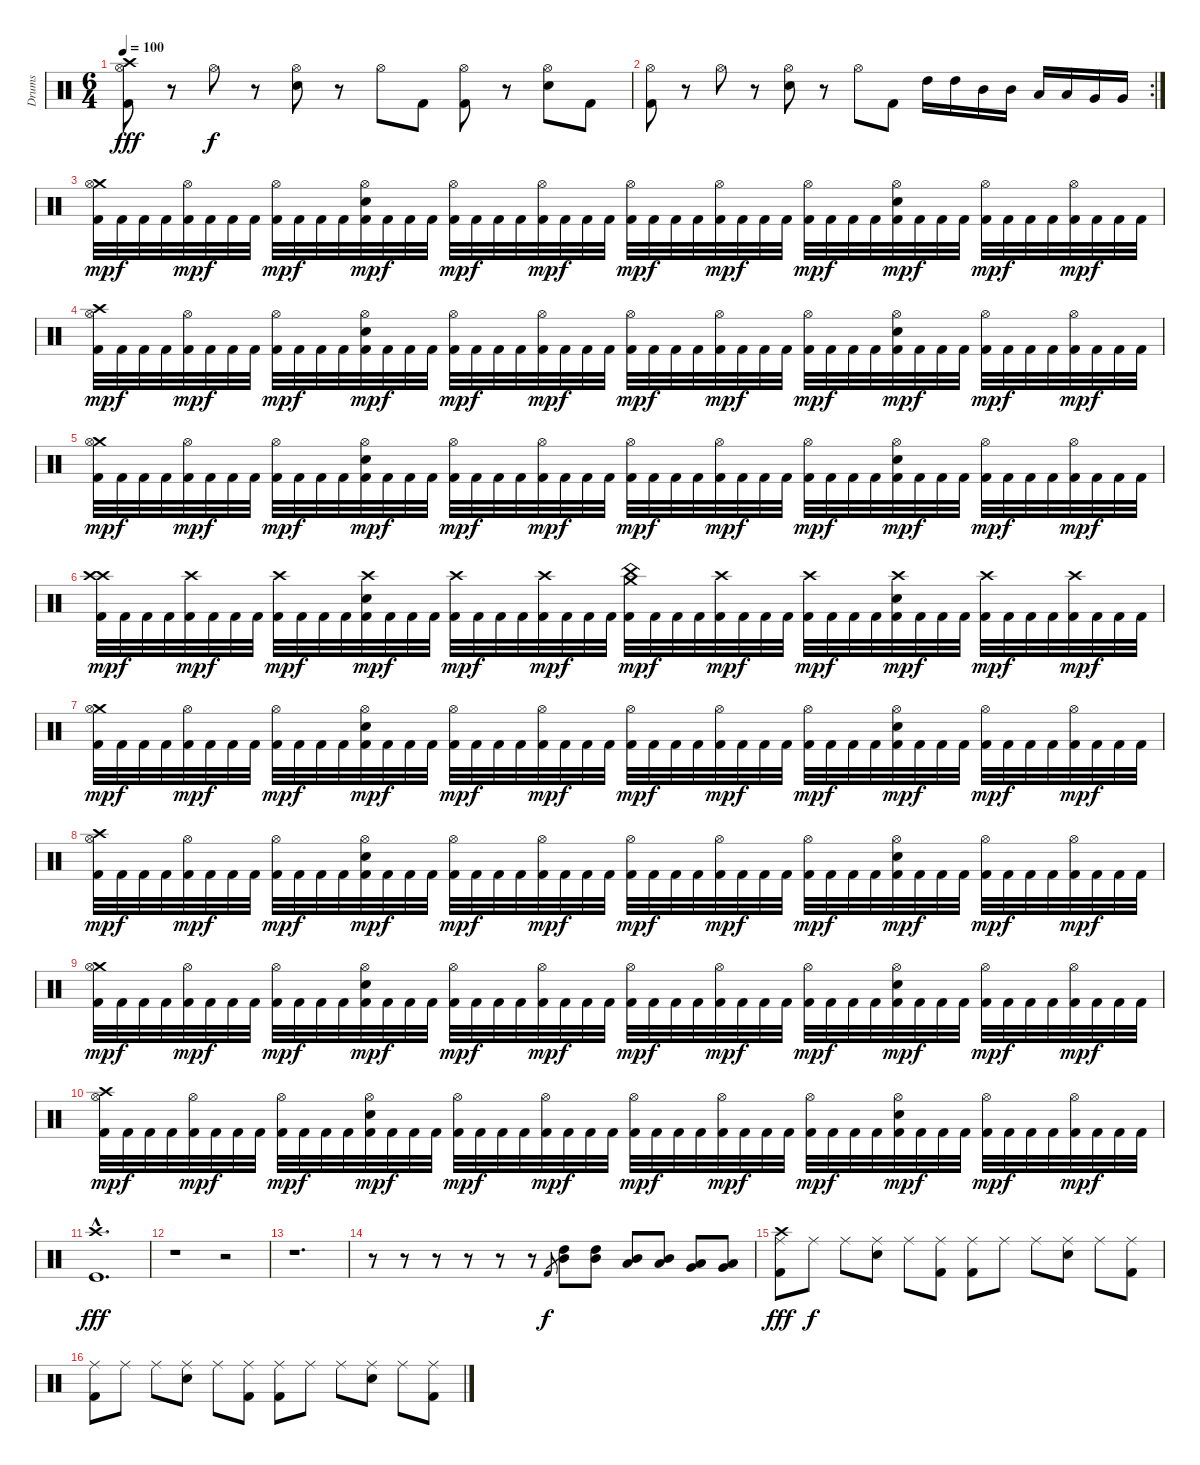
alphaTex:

\track ("Drums" "Drums") {instrument percussion}
\staff {score}
\articulation defaults
\ts (6 4)
\tempo 100
\clef neutral
\ks c
("Hi-Hat (open)" "Crash high (hit)" "Kick (hit) 2").8{dy fff} r.8 "Hi-Hat (open)".8{dy f} r.8 ("Hi-Hat (open)" "Electric Snare (hit)").8 r.8 "Hi-Hat (open)".8 "Kick (hit) 2".8 ("Hi-Hat (open)" "Kick (hit) 2").8 r.8 ("Hi-Hat (open)" "Electric Snare (hit)").8 "Kick (hit) 2".8 |
\rc 2
("Hi-Hat (open)" "Kick (hit) 2").8 r.8 "Hi-Hat (open)".8 r.8 ("Hi-Hat (open)" "Electric Snare (hit)").8 r.8 "Hi-Hat (open)".8 "Kick (hit) 2".8 "High Tom (hit)".16 "High Tom (hit)".16 "Mid Tom (hit)".16 "Mid Tom (hit)".16 "Low Tom (hit)".16 "Low Tom (hit)".16 "Very Low Tom (hit)".16 "Very Low Tom (hit)".16 |
("Crash medium (hit)" "Hi-Hat (open)" "Kick (hit) 2").32{dy mp} "Kick (hit) 2".32{dy f} "Kick (hit) 2".32 "Kick (hit) 2".32 ("Hi-Hat (open)" "Kick (hit) 2").32{dy mp} "Kick (hit) 2".32{dy f} "Kick (hit) 2".32 "Kick (hit) 2".32 ("Hi-Hat (open)" "Kick (hit) 2").32{dy mp} "Kick (hit) 2".32{dy f} "Kick (hit) 2".32 "Kick (hit) 2".32 ("Hi-Hat (open)" "Electric Snare (hit)" "Kick (hit) 2").32{dy mp} "Kick (hit) 2".32{dy f} "Kick (hit) 2".32 "Kick (hit) 2".32 ("Hi-Hat (open)" "Kick (hit) 2").32{dy mp} "Kick (hit) 2".32{dy f} "Kick (hit) 2".32 "Kick (hit) 2".32 ("Hi-Hat (open)" "Kick (hit) 2").32{dy mp} "Kick (hit) 2".32{dy f} "Kick (hit) 2".32 "Kick (hit) 2".32 ("Hi-Hat (open)" "Kick (hit) 2").32{dy mp} "Kick (hit) 2".32{dy f} "Kick (hit) 2".32 "Kick (hit) 2".32 ("Hi-Hat (open)" "Kick (hit) 2").32{dy mp} "Kick (hit) 2".32{dy f} "Kick (hit) 2".32 "Kick (hit) 2".32 ("Hi-Hat (open)" "Kick (hit) 2").32{dy mp} "Kick (hit) 2".32{dy f} "Kick (hit) 2".32 "Kick (hit) 2".32 ("Hi-Hat (open)" "Electric Snare (hit)" "Kick (hit) 2").32{dy mp} "Kick (hit) 2".32{dy f} "Kick (hit) 2".32 "Kick (hit) 2".32 ("Hi-Hat (open)" "Kick (hit) 2").32{dy mp} "Kick (hit) 2".32{dy f} "Kick (hit) 2".32 "Kick (hit) 2".32 ("Hi-Hat (open)" "Kick (hit) 2").32{dy mp} "Kick (hit) 2".32{dy f} "Kick (hit) 2".32 "Kick (hit) 2".32 |
("Crash high (hit)" "Hi-Hat (open)" "Kick (hit) 2").32{dy mp} "Kick (hit) 2".32{dy f} "Kick (hit) 2".32 "Kick (hit) 2".32 ("Hi-Hat (open)" "Kick (hit) 2").32{dy mp} "Kick (hit) 2".32{dy f} "Kick (hit) 2".32 "Kick (hit) 2".32 ("Hi-Hat (open)" "Kick (hit) 2").32{dy mp} "Kick (hit) 2".32{dy f} "Kick (hit) 2".32 "Kick (hit) 2".32 ("Hi-Hat (open)" "Electric Snare (hit)" "Kick (hit) 2").32{dy mp} "Kick (hit) 2".32{dy f} "Kick (hit) 2".32 "Kick (hit) 2".32 ("Hi-Hat (open)" "Kick (hit) 2").32{dy mp} "Kick (hit) 2".32{dy f} "Kick (hit) 2".32 "Kick (hit) 2".32 ("Hi-Hat (open)" "Kick (hit) 2").32{dy mp} "Kick (hit) 2".32{dy f} "Kick (hit) 2".32 "Kick (hit) 2".32 ("Hi-Hat (open)" "Kick (hit) 2").32{dy mp} "Kick (hit) 2".32{dy f} "Kick (hit) 2".32 "Kick (hit) 2".32 ("Hi-Hat (open)" "Kick (hit) 2").32{dy mp} "Kick (hit) 2".32{dy f} "Kick (hit) 2".32 "Kick (hit) 2".32 ("Hi-Hat (open)" "Kick (hit) 2").32{dy mp} "Kick (hit) 2".32{dy f} "Kick (hit) 2".32 "Kick (hit) 2".32 ("Hi-Hat (open)" "Electric Snare (hit)" "Kick (hit) 2").32{dy mp} "Kick (hit) 2".32{dy f} "Kick (hit) 2".32 "Kick (hit) 2".32 ("Hi-Hat (open)" "Kick (hit) 2").32{dy mp} "Kick (hit) 2".32{dy f} "Kick (hit) 2".32 "Kick (hit) 2".32 ("Hi-Hat (open)" "Kick (hit) 2").32{dy mp} "Kick (hit) 2".32{dy f} "Kick (hit) 2".32 "Kick (hit) 2".32 |
("Crash medium (hit)" "Hi-Hat (open)" "Kick (hit) 2").32{dy mp} "Kick (hit) 2".32{dy f} "Kick (hit) 2".32 "Kick (hit) 2".32 ("Hi-Hat (open)" "Kick (hit) 2").32{dy mp} "Kick (hit) 2".32{dy f} "Kick (hit) 2".32 "Kick (hit) 2".32 ("Hi-Hat (open)" "Kick (hit) 2").32{dy mp} "Kick (hit) 2".32{dy f} "Kick (hit) 2".32 "Kick (hit) 2".32 ("Hi-Hat (open)" "Electric Snare (hit)" "Kick (hit) 2").32{dy mp} "Kick (hit) 2".32{dy f} "Kick (hit) 2".32 "Kick (hit) 2".32 ("Hi-Hat (open)" "Kick (hit) 2").32{dy mp} "Kick (hit) 2".32{dy f} "Kick (hit) 2".32 "Kick (hit) 2".32 ("Hi-Hat (open)" "Kick (hit) 2").32{dy mp} "Kick (hit) 2".32{dy f} "Kick (hit) 2".32 "Kick (hit) 2".32 ("Hi-Hat (open)" "Kick (hit) 2").32{dy mp} "Kick (hit) 2".32{dy f} "Kick (hit) 2".32 "Kick (hit) 2".32 ("Hi-Hat (open)" "Kick (hit) 2").32{dy mp} "Kick (hit) 2".32{dy f} "Kick (hit) 2".32 "Kick (hit) 2".32 ("Hi-Hat (open)" "Kick (hit) 2").32{dy mp} "Kick (hit) 2".32{dy f} "Kick (hit) 2".32 "Kick (hit) 2".32 ("Hi-Hat (open)" "Electric Snare (hit)" "Kick (hit) 2").32{dy mp} "Kick (hit) 2".32{dy f} "Kick (hit) 2".32 "Kick (hit) 2".32 ("Hi-Hat (open)" "Kick (hit) 2").32{dy mp} "Kick (hit) 2".32{dy f} "Kick (hit) 2".32 "Kick (hit) 2".32 ("Hi-Hat (open)" "Kick (hit) 2").32{dy mp} "Kick (hit) 2".32{dy f} "Kick (hit) 2".32 "Kick (hit) 2".32 |
("Crash high (hit)" "Crash high (hit)" "Kick (hit) 2").32{dy mp} "Kick (hit) 2".32{dy f} "Kick (hit) 2".32 "Kick (hit) 2".32 ("Crash high (hit)" "Kick (hit) 2").32{dy mp} "Kick (hit) 2".32{dy f} "Kick (hit) 2".32 "Kick (hit) 2".32 ("Crash high (hit)" "Kick (hit) 2").32{dy mp} "Kick (hit) 2".32{dy f} "Kick (hit) 2".32 "Kick (hit) 2".32 ("Crash high (hit)" "Electric Snare (hit)" "Kick (hit) 2").32{dy mp} "Kick (hit) 2".32{dy f} "Kick (hit) 2".32 "Kick (hit) 2".32 ("Crash high (hit)" "Kick (hit) 2").32{dy mp} "Kick (hit) 2".32{dy f} "Kick (hit) 2".32 "Kick (hit) 2".32 ("Crash high (hit)" "Kick (hit) 2").32{dy mp} "Kick (hit) 2".32{dy f} "Kick (hit) 2".32 "Kick (hit) 2".32 ("China (hit)" "Crash medium (hit)" "Kick (hit) 2").32{dy mp} "Kick (hit) 2".32{dy f} "Kick (hit) 2".32 "Kick (hit) 2".32 ("Crash high (hit)" "Kick (hit) 2").32{dy mp} "Kick (hit) 2".32{dy f} "Kick (hit) 2".32 "Kick (hit) 2".32 ("Crash high (hit)" "Kick (hit) 2").32{dy mp} "Kick (hit) 2".32{dy f} "Kick (hit) 2".32 "Kick (hit) 2".32 ("Crash high (hit)" "Electric Snare (hit)" "Kick (hit) 2").32{dy mp} "Kick (hit) 2".32{dy f} "Kick (hit) 2".32 "Kick (hit) 2".32 ("Crash high (hit)" "Kick (hit) 2").32{dy mp} "Kick (hit) 2".32{dy f} "Kick (hit) 2".32 "Kick (hit) 2".32 ("Crash high (hit)" "Kick (hit) 2").32{dy mp} "Kick (hit) 2".32{dy f} "Kick (hit) 2".32 "Kick (hit) 2".32 |
("Crash medium (hit)" "Hi-Hat (open)" "Kick (hit) 2").32{dy mp} "Kick (hit) 2".32{dy f} "Kick (hit) 2".32 "Kick (hit) 2".32 ("Hi-Hat (open)" "Kick (hit) 2").32{dy mp} "Kick (hit) 2".32{dy f} "Kick (hit) 2".32 "Kick (hit) 2".32 ("Hi-Hat (open)" "Kick (hit) 2").32{dy mp} "Kick (hit) 2".32{dy f} "Kick (hit) 2".32 "Kick (hit) 2".32 ("Hi-Hat (open)" "Electric Snare (hit)" "Kick (hit) 2").32{dy mp} "Kick (hit) 2".32{dy f} "Kick (hit) 2".32 "Kick (hit) 2".32 ("Hi-Hat (open)" "Kick (hit) 2").32{dy mp} "Kick (hit) 2".32{dy f} "Kick (hit) 2".32 "Kick (hit) 2".32 ("Hi-Hat (open)" "Kick (hit) 2").32{dy mp} "Kick (hit) 2".32{dy f} "Kick (hit) 2".32 "Kick (hit) 2".32 ("Hi-Hat (open)" "Kick (hit) 2").32{dy mp} "Kick (hit) 2".32{dy f} "Kick (hit) 2".32 "Kick (hit) 2".32 ("Hi-Hat (open)" "Kick (hit) 2").32{dy mp} "Kick (hit) 2".32{dy f} "Kick (hit) 2".32 "Kick (hit) 2".32 ("Hi-Hat (open)" "Kick (hit) 2").32{dy mp} "Kick (hit) 2".32{dy f} "Kick (hit) 2".32 "Kick (hit) 2".32 ("Hi-Hat (open)" "Electric Snare (hit)" "Kick (hit) 2").32{dy mp} "Kick (hit) 2".32{dy f} "Kick (hit) 2".32 "Kick (hit) 2".32 ("Hi-Hat (open)" "Kick (hit) 2").32{dy mp} "Kick (hit) 2".32{dy f} "Kick (hit) 2".32 "Kick (hit) 2".32 ("Hi-Hat (open)" "Kick (hit) 2").32{dy mp} "Kick (hit) 2".32{dy f} "Kick (hit) 2".32 "Kick (hit) 2".32 |
("Crash high (hit)" "Hi-Hat (open)" "Kick (hit) 2").32{dy mp} "Kick (hit) 2".32{dy f} "Kick (hit) 2".32 "Kick (hit) 2".32 ("Hi-Hat (open)" "Kick (hit) 2").32{dy mp} "Kick (hit) 2".32{dy f} "Kick (hit) 2".32 "Kick (hit) 2".32 ("Hi-Hat (open)" "Kick (hit) 2").32{dy mp} "Kick (hit) 2".32{dy f} "Kick (hit) 2".32 "Kick (hit) 2".32 ("Hi-Hat (open)" "Electric Snare (hit)" "Kick (hit) 2").32{dy mp} "Kick (hit) 2".32{dy f} "Kick (hit) 2".32 "Kick (hit) 2".32 ("Hi-Hat (open)" "Kick (hit) 2").32{dy mp} "Kick (hit) 2".32{dy f} "Kick (hit) 2".32 "Kick (hit) 2".32 ("Hi-Hat (open)" "Kick (hit) 2").32{dy mp} "Kick (hit) 2".32{dy f} "Kick (hit) 2".32 "Kick (hit) 2".32 ("Hi-Hat (open)" "Kick (hit) 2").32{dy mp} "Kick (hit) 2".32{dy f} "Kick (hit) 2".32 "Kick (hit) 2".32 ("Hi-Hat (open)" "Kick (hit) 2").32{dy mp} "Kick (hit) 2".32{dy f} "Kick (hit) 2".32 "Kick (hit) 2".32 ("Hi-Hat (open)" "Kick (hit) 2").32{dy mp} "Kick (hit) 2".32{dy f} "Kick (hit) 2".32 "Kick (hit) 2".32 ("Hi-Hat (open)" "Electric Snare (hit)" "Kick (hit) 2").32{dy mp} "Kick (hit) 2".32{dy f} "Kick (hit) 2".32 "Kick (hit) 2".32 ("Hi-Hat (open)" "Kick (hit) 2").32{dy mp} "Kick (hit) 2".32{dy f} "Kick (hit) 2".32 "Kick (hit) 2".32 ("Hi-Hat (open)" "Kick (hit) 2").32{dy mp} "Kick (hit) 2".32{dy f} "Kick (hit) 2".32 "Kick (hit) 2".32 |
("Crash medium (hit)" "Hi-Hat (open)" "Kick (hit) 2").32{dy mp} "Kick (hit) 2".32{dy f} "Kick (hit) 2".32 "Kick (hit) 2".32 ("Hi-Hat (open)" "Kick (hit) 2").32{dy mp} "Kick (hit) 2".32{dy f} "Kick (hit) 2".32 "Kick (hit) 2".32 ("Hi-Hat (open)" "Kick (hit) 2").32{dy mp} "Kick (hit) 2".32{dy f} "Kick (hit) 2".32 "Kick (hit) 2".32 ("Hi-Hat (open)" "Electric Snare (hit)" "Kick (hit) 2").32{dy mp} "Kick (hit) 2".32{dy f} "Kick (hit) 2".32 "Kick (hit) 2".32 ("Hi-Hat (open)" "Kick (hit) 2").32{dy mp} "Kick (hit) 2".32{dy f} "Kick (hit) 2".32 "Kick (hit) 2".32 ("Hi-Hat (open)" "Kick (hit) 2").32{dy mp} "Kick (hit) 2".32{dy f} "Kick (hit) 2".32 "Kick (hit) 2".32 ("Hi-Hat (open)" "Kick (hit) 2").32{dy mp} "Kick (hit) 2".32{dy f} "Kick (hit) 2".32 "Kick (hit) 2".32 ("Hi-Hat (open)" "Kick (hit) 2").32{dy mp} "Kick (hit) 2".32{dy f} "Kick (hit) 2".32 "Kick (hit) 2".32 ("Hi-Hat (open)" "Kick (hit) 2").32{dy mp} "Kick (hit) 2".32{dy f} "Kick (hit) 2".32 "Kick (hit) 2".32 ("Hi-Hat (open)" "Electric Snare (hit)" "Kick (hit) 2").32{dy mp} "Kick (hit) 2".32{dy f} "Kick (hit) 2".32 "Kick (hit) 2".32 ("Hi-Hat (open)" "Kick (hit) 2").32{dy mp} "Kick (hit) 2".32{dy f} "Kick (hit) 2".32 "Kick (hit) 2".32 ("Hi-Hat (open)" "Kick (hit) 2").32{dy mp} "Kick (hit) 2".32{dy f} "Kick (hit) 2".32 "Kick (hit) 2".32 |
("Crash high (hit)" "Hi-Hat (open)" "Kick (hit) 2").32{dy mp} "Kick (hit) 2".32{dy f} "Kick (hit) 2".32 "Kick (hit) 2".32 ("Hi-Hat (open)" "Kick (hit) 2").32{dy mp} "Kick (hit) 2".32{dy f} "Kick (hit) 2".32 "Kick (hit) 2".32 ("Hi-Hat (open)" "Kick (hit) 2").32{dy mp} "Kick (hit) 2".32{dy f} "Kick (hit) 2".32 "Kick (hit) 2".32 ("Hi-Hat (open)" "Electric Snare (hit)" "Kick (hit) 2").32{dy mp} "Kick (hit) 2".32{dy f} "Kick (hit) 2".32 "Kick (hit) 2".32 ("Hi-Hat (open)" "Kick (hit) 2").32{dy mp} "Kick (hit) 2".32{dy f} "Kick (hit) 2".32 "Kick (hit) 2".32 ("Hi-Hat (open)" "Kick (hit) 2").32{dy mp} "Kick (hit) 2".32{dy f} "Kick (hit) 2".32 "Kick (hit) 2".32 ("Hi-Hat (open)" "Kick (hit) 2").32{dy mp} "Kick (hit) 2".32{dy f} "Kick (hit) 2".32 "Kick (hit) 2".32 ("Hi-Hat (open)" "Kick (hit) 2").32{dy mp} "Kick (hit) 2".32{dy f} "Kick (hit) 2".32 "Kick (hit) 2".32 ("Hi-Hat (open)" "Kick (hit) 2").32{dy mp} "Kick (hit) 2".32{dy f} "Kick (hit) 2".32 "Kick (hit) 2".32 ("Hi-Hat (open)" "Electric Snare (hit)" "Kick (hit) 2").32{dy mp} "Kick (hit) 2".32{dy f} "Kick (hit) 2".32 "Kick (hit) 2".32 ("Hi-Hat (open)" "Kick (hit) 2").32{dy mp} "Kick (hit) 2".32{dy f} "Kick (hit) 2".32 "Kick (hit) 2".32 ("Hi-Hat (open)" "Kick (hit) 2").32{dy mp} "Kick (hit) 2".32{dy f} "Kick (hit) 2".32 "Kick (hit) 2".32 |
("Crash high (hit)"{hac} "Kick (hit)"{hac}).1{d dy fff} |
r.1 r.2 |
r.1{d} |
r.8 r.8 r.8 r.8 r.8 r.8 "Kick (hit) 2".8{gr dy f} ("High Tom (hit)" "Mid Tom (hit)").8 ("High Tom (hit)" "Mid Tom (hit)").8 ("Mid Tom (hit)" "Low Tom (hit)").8 ("Mid Tom (hit)" "Low Tom (hit)").8 ("Low Tom (hit)" "Very Low Tom (hit)").8 ("Low Tom (hit)" "Very Low Tom (hit)").8 |
("Crash high (hit)" "Ride (middle)" "Kick (hit) 2").8{dy fff} "Ride (middle)".8{dy f} "Ride (middle)".8 ("Ride (middle)" "Electric Snare (hit)").8 "Ride (middle)".8 ("Ride (middle)" "Kick (hit) 2").8 ("Ride (middle)" "Kick (hit) 2").8 "Ride (middle)".8 "Ride (middle)".8 ("Ride (middle)" "Electric Snare (hit)").8 "Ride (middle)".8 ("Ride (middle)" "Kick (hit) 2").8 |
("Ride (middle)" "Kick (hit) 2").8 "Ride (middle)".8 "Ride (middle)".8 ("Ride (middle)" "Electric Snare (hit)").8 "Ride (middle)".8 ("Ride (middle)" "Kick (hit) 2").8 ("Ride (middle)" "Kick (hit) 2").8 "Ride (middle)".8 "Ride (middle)".8 ("Ride (middle)" "Electric Snare (hit)").8 "Ride (middle)".8 ("Ride (middle)" "Kick (hit) 2").8
